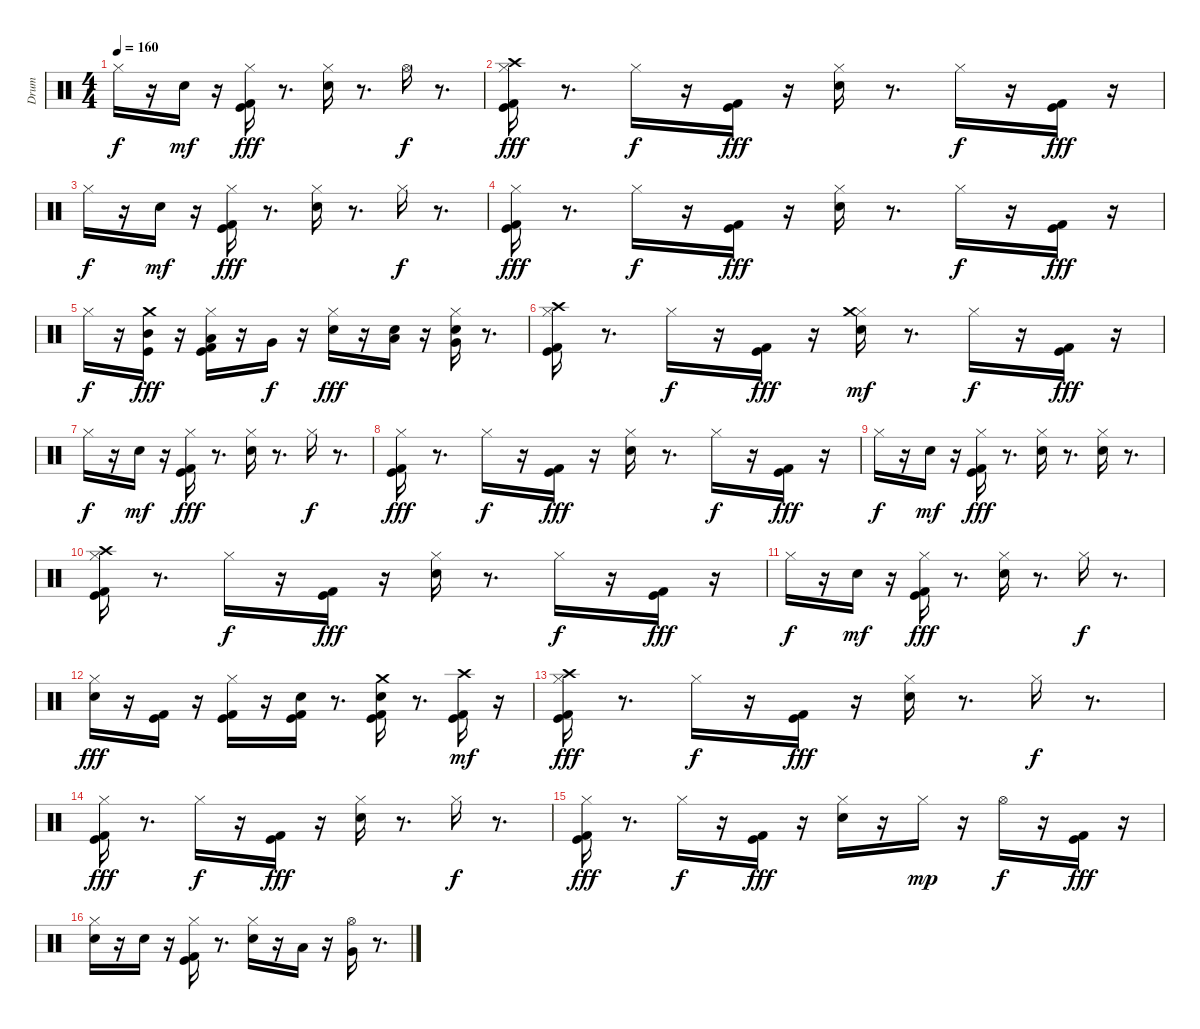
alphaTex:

\track ("Drum" "Drum") {instrument percussion}
\staff {score}
\articulation defaults
\ts (4 4)
\tempo 160
\clef neutral
\ks c "Hi-Hat (closed)".16{dy f}
r.16 "Electric Snare (hit)".16{dy mf} r.16 ("Hi-Hat (closed)" "Kick (hit) 2" "Kick (hit)").16{dy fff} r.8{d} ("Hi-Hat (closed)" "Electric Snare (hit)").16 r.8{d} "Hi-Hat (open)".16{dy f} r.8{d} |
("Crash high (hit)" "Hi-Hat (closed)" "Kick (hit)" "Kick (hit) 2").16{dy fff} r.8{d} "Hi-Hat (closed)".16{dy f} r.16 ("Kick (hit)" "Kick (hit) 2").16{dy fff} r.16 ("Hi-Hat (closed)" "Electric Snare (hit)").16 r.8{d} "Hi-Hat (closed)".16{dy f} r.16 ("Kick (hit)" "Kick (hit) 2").16{dy fff} r.16 |
"Hi-Hat (closed)".16{dy f} r.16 "Electric Snare (hit)".16{dy mf} r.16 ("Hi-Hat (closed)" "Kick (hit) 2" "Kick (hit)").16{dy fff} r.8{d} ("Hi-Hat (closed)" "Electric Snare (hit)").16 r.8{d} "Hi-Hat (closed)".16{dy f} r.8{d} |
("Hi-Hat (closed)" "Kick (hit)" "Kick (hit) 2").16{dy fff} r.8{d} "Hi-Hat (closed)".16{dy f} r.16 ("Kick (hit)" "Kick (hit) 2").16{dy fff} r.16 ("Hi-Hat (closed)" "Electric Snare (hit)").16 r.8{d} "Hi-Hat (closed)".16{dy f} r.16 ("Kick (hit)" "Kick (hit) 2").16{dy fff} r.16 |
"Hi-Hat (closed)".16{dy f} r.16 ("Crash medium (hit)" "Kick (hit)" "Mid Tom (hit)").16{dy fff} r.16 ("Hi-Hat (closed)" "Kick (hit) 2" "Kick (hit)" "Low Tom (hit)").16 r.16 "Very Low Tom (hit)".16{dy f} r.16 ("Hi-Hat (closed)" "Electric Snare (hit)").16{dy fff} r.16 ("Electric Snare (hit)" "Low Tom (hit)").16 r.16 ("Hi-Hat (closed)" "Electric Snare (hit)" "Very Low Tom (hit)").16 r.8{d} |
("Crash high (hit)" "Hi-Hat (closed)" "Kick (hit)" "Kick (hit) 2").16 r.8{d} "Hi-Hat (closed)".16{dy f} r.16 ("Kick (hit)" "Kick (hit) 2").16{dy fff} r.16 ("Hi-Hat (closed)" "Electric Snare (hit)" "Crash medium (hit)").16{dy mf} r.8{d} "Hi-Hat (closed)".16{dy f} r.16 ("Kick (hit)" "Kick (hit) 2").16{dy fff} r.16 |
"Hi-Hat (closed)".16{dy f} r.16 "Electric Snare (hit)".16{dy mf} r.16 ("Hi-Hat (closed)" "Kick (hit) 2" "Kick (hit)").16{dy fff} r.8{d} ("Hi-Hat (closed)" "Electric Snare (hit)").16 r.8{d} "Hi-Hat (closed)".16{dy f} r.8{d} |
("Hi-Hat (closed)" "Kick (hit)" "Kick (hit) 2").16{dy fff} r.8{d} "Hi-Hat (closed)".16{dy f} r.16 ("Kick (hit)" "Kick (hit) 2").16{dy fff} r.16 ("Hi-Hat (closed)" "Electric Snare (hit)").16 r.8{d} "Hi-Hat (closed)".16{dy f} r.16 ("Kick (hit)" "Kick (hit) 2").16{dy fff} r.16 |
"Hi-Hat (closed)".16{dy f} r.16 "Electric Snare (hit)".16{dy mf} r.16 ("Hi-Hat (closed)" "Kick (hit) 2" "Kick (hit)").16{dy fff} r.8{d} ("Hi-Hat (closed)" "Electric Snare (hit)").16 r.8{d} ("Hi-Hat (closed)" "Electric Snare (hit)").16 r.8{d} |
("Crash high (hit)" "Hi-Hat (closed)" "Kick (hit)" "Kick (hit) 2").16 r.8{d} "Hi-Hat (closed)".16{dy f} r.16 ("Kick (hit)" "Kick (hit) 2").16{dy fff} r.16 ("Hi-Hat (closed)" "Electric Snare (hit)").16 r.8{d} "Hi-Hat (closed)".16{dy f} r.16 ("Kick (hit)" "Kick (hit) 2").16{dy fff} r.16 |
"Hi-Hat (closed)".16{dy f} r.16 "Electric Snare (hit)".16{dy mf} r.16 ("Hi-Hat (closed)" "Kick (hit) 2" "Kick (hit)").16{dy fff} r.8{d} ("Hi-Hat (closed)" "Electric Snare (hit)").16 r.8{d} "Hi-Hat (closed)".16{dy f} r.8{d} |
("Hi-Hat (closed)" "Electric Snare (hit)").16{dy fff} r.16 ("Kick (hit)" "Kick (hit) 2").16 r.16 ("Kick (hit)" "Kick (hit) 2" "Hi-Hat (closed)").16 r.16 ("Kick (hit)" "Kick (hit) 2" "Electric Snare (hit)").16 r.8{d} ("Kick (hit) 2" "Kick (hit)" "Crash medium (hit)" "Electric Snare (hit)").16 r.8{d} ("Kick (hit)" "Kick (hit) 2" "Crash high (hit)").16{dy mf} r.16 |
("Crash high (hit)" "Kick (hit)" "Kick (hit) 2" "Hi-Hat (closed)").16{dy fff} r.8{d} "Hi-Hat (closed)".16{dy f} r.16 ("Kick (hit)" "Kick (hit) 2").16{dy fff} r.16 ("Hi-Hat (closed)" "Electric Snare (hit)").16 r.8{d} "Hi-Hat (closed)".16{dy f} r.8{d} |
("Kick (hit)" "Kick (hit) 2" "Hi-Hat (closed)").16{dy fff} r.8{d} "Hi-Hat (closed)".16{dy f} r.16 ("Kick (hit)" "Kick (hit) 2").16{dy fff} r.16 ("Hi-Hat (closed)" "Electric Snare (hit)").16 r.8{d} "Hi-Hat (closed)".16{dy f} r.8{d} |
("Kick (hit)" "Kick (hit) 2" "Hi-Hat (closed)").16{dy fff} r.8{d} "Hi-Hat (closed)".16{dy f} r.16 ("Kick (hit)" "Kick (hit) 2").16{dy fff} r.16 ("Hi-Hat (closed)" "Electric Snare (hit)").16 r.16 "Hi-Hat (closed)".16{dy mp} r.16 "Hi-Hat (open)".16{dy f} r.16 ("Kick (hit)" "Kick (hit) 2").16{dy fff} r.16 |
("Electric Snare (hit)" "Hi-Hat (closed)").16 r.16 "Electric Snare (hit)".16 r.16 ("Kick (hit)" "Kick (hit) 2" "Hi-Hat (closed)").16 r.8{d} ("Electric Snare (hit)" "Hi-Hat (closed)").16 r.16 "Low Tom (hit)".16 r.16 ("Very Low Tom (hit)" "Hi-Hat (open)").16 r.8{d}
